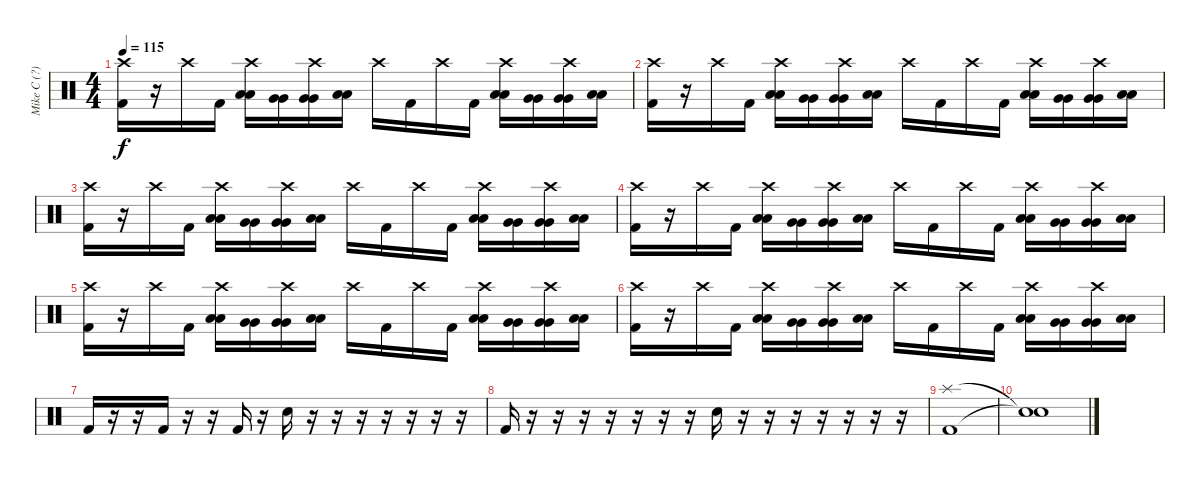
\track ("Mike C (?)" "Mike C (?)") {instrument percussion}
\staff {score}
\articulation defaults
\ts (4 4)
\tempo 115
\clef neutral
\ks c
("Crash high (hit)" "Kick (hit) 2").16{dy f} r.16 "Crash high (hit)".16 "Kick (hit) 2".16 ("Crash high (hit)" "Low Tom (hit)" "Low Tom (hit)").16 ("Very Low Tom (hit)" "Very Low Tom (hit)").16 ("Crash high (hit)" "Very Low Tom (hit)" "Very Low Tom (hit)").16 ("Low Floor Tom (hit)" "Low Floor Tom (hit)").16 "Crash high (hit)".16 "Kick (hit) 2".16 "Crash high (hit)".16 "Kick (hit) 2".16 ("Crash high (hit)" "Low Tom (hit)" "Low Tom (hit)").16 ("Very Low Tom (hit)" "Very Low Tom (hit)").16 ("Crash high (hit)" "Very Low Tom (hit)" "Very Low Tom (hit)").16 ("Low Floor Tom (hit)" "Low Floor Tom (hit)").16 |
("Crash high (hit)" "Kick (hit) 2").16 r.16 "Crash high (hit)".16 "Kick (hit) 2".16 ("Crash high (hit)" "Low Tom (hit)" "Low Tom (hit)").16 ("Very Low Tom (hit)" "Very Low Tom (hit)").16 ("Crash high (hit)" "Very Low Tom (hit)" "Very Low Tom (hit)").16 ("Low Floor Tom (hit)" "Low Floor Tom (hit)").16 "Crash high (hit)".16 "Kick (hit) 2".16 "Crash high (hit)".16 "Kick (hit) 2".16 ("Crash high (hit)" "Low Tom (hit)" "Low Tom (hit)").16 ("Very Low Tom (hit)" "Very Low Tom (hit)").16 ("Crash high (hit)" "Very Low Tom (hit)" "Very Low Tom (hit)").16 ("Low Floor Tom (hit)" "Low Floor Tom (hit)").16 |
("Crash high (hit)" "Kick (hit) 2").16 r.16 "Crash high (hit)".16 "Kick (hit) 2".16 ("Crash high (hit)" "Low Tom (hit)" "Low Tom (hit)").16 ("Very Low Tom (hit)" "Very Low Tom (hit)").16 ("Crash high (hit)" "Very Low Tom (hit)" "Very Low Tom (hit)").16 ("Low Floor Tom (hit)" "Low Floor Tom (hit)").16 "Crash high (hit)".16 "Kick (hit) 2".16 "Crash high (hit)".16 "Kick (hit) 2".16 ("Crash high (hit)" "Low Tom (hit)" "Low Tom (hit)").16 ("Very Low Tom (hit)" "Very Low Tom (hit)").16 ("Crash high (hit)" "Very Low Tom (hit)" "Very Low Tom (hit)").16 ("Low Floor Tom (hit)" "Low Floor Tom (hit)").16 |
("Crash high (hit)" "Kick (hit) 2").16 r.16 "Crash high (hit)".16 "Kick (hit) 2".16 ("Crash high (hit)" "Low Tom (hit)" "Low Tom (hit)").16 ("Very Low Tom (hit)" "Very Low Tom (hit)").16 ("Crash high (hit)" "Very Low Tom (hit)" "Very Low Tom (hit)").16 ("Low Floor Tom (hit)" "Low Floor Tom (hit)").16 "Crash high (hit)".16 "Kick (hit) 2".16 "Crash high (hit)".16 "Kick (hit) 2".16 ("Crash high (hit)" "Low Tom (hit)" "Low Tom (hit)").16 ("Very Low Tom (hit)" "Very Low Tom (hit)").16 ("Crash high (hit)" "Very Low Tom (hit)" "Very Low Tom (hit)").16 ("Low Floor Tom (hit)" "Low Floor Tom (hit)").16 |
("Crash high (hit)" "Kick (hit) 2").16 r.16 "Crash high (hit)".16 "Kick (hit) 2".16 ("Crash high (hit)" "Low Tom (hit)" "Low Tom (hit)").16 ("Very Low Tom (hit)" "Very Low Tom (hit)").16 ("Crash high (hit)" "Very Low Tom (hit)" "Very Low Tom (hit)").16 ("Low Floor Tom (hit)" "Low Floor Tom (hit)").16 "Crash high (hit)".16 "Kick (hit) 2".16 "Crash high (hit)".16 "Kick (hit) 2".16 ("Crash high (hit)" "Low Tom (hit)" "Low Tom (hit)").16 ("Very Low Tom (hit)" "Very Low Tom (hit)").16 ("Crash high (hit)" "Very Low Tom (hit)" "Very Low Tom (hit)").16 ("Low Floor Tom (hit)" "Low Floor Tom (hit)").16 |
("Crash high (hit)" "Kick (hit) 2").16 r.16 "Crash high (hit)".16 "Kick (hit) 2".16 ("Crash high (hit)" "Low Tom (hit)" "Low Tom (hit)").16 ("Very Low Tom (hit)" "Very Low Tom (hit)").16 ("Crash high (hit)" "Very Low Tom (hit)" "Very Low Tom (hit)").16 ("Low Floor Tom (hit)" "Low Floor Tom (hit)").16 "Crash high (hit)".16 "Kick (hit) 2".16 "Crash high (hit)".16 "Kick (hit) 2".16 ("Crash high (hit)" "Low Tom (hit)" "Low Tom (hit)").16 ("Very Low Tom (hit)" "Very Low Tom (hit)").16 ("Crash high (hit)" "Very Low Tom (hit)" "Very Low Tom (hit)").16 ("Low Floor Tom (hit)" "Low Floor Tom (hit)").16 |
"Kick (hit) 2".16 r.16 r.16 "Kick (hit) 2".16 r.16 r.16 "Kick (hit) 2".16 r.16 "Snare (hit) 2".16 r.16 r.16 r.16 r.16 r.16 r.16 r.16 |
"Kick (hit) 2".16 r.16 r.16 r.16 r.16 r.16 r.16 r.16 "Snare (hit) 2".16 r.16 r.16 r.16 r.16 r.16 r.16 r.16 |
("Splash (hit)" "Kick (hit) 2").1 |
("Snare (hit)"{t} "Snare (hit)"{t}).1
